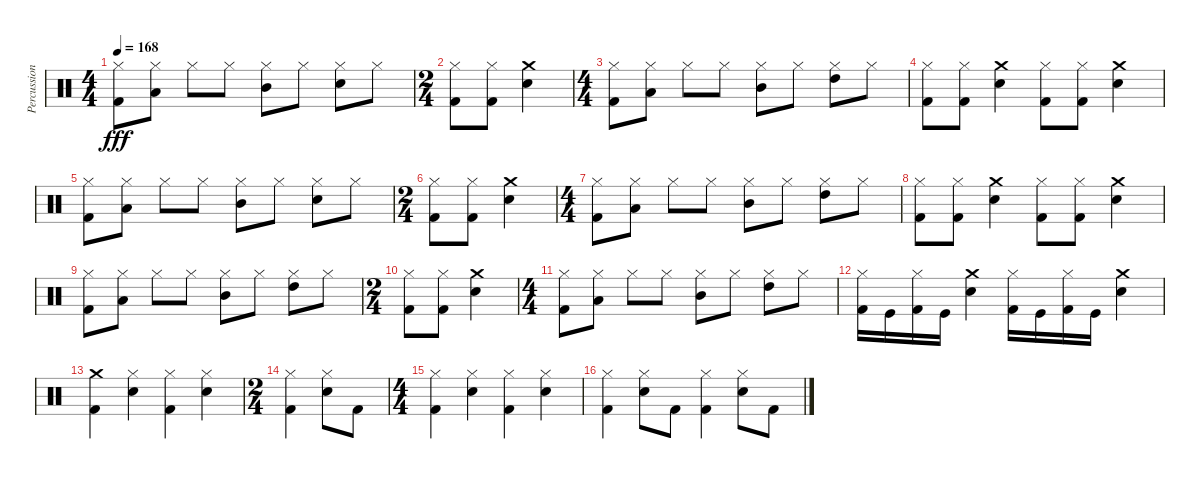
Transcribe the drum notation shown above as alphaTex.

\track ("Percussion" "Percussion") {instrument percussion}
\staff {score}
\articulation defaults
\ts (4 4)
\tempo 168
\clef neutral
\ks c
("Hi-Hat (closed)" "Kick (hit) 2").8{dy fff} ("Low Tom (hit)" "Hi-Hat (closed)").8 "Hi-Hat (closed)".8 "Hi-Hat (closed)".8 ("Mid Tom (hit)" "Hi-Hat (closed)").8 "Hi-Hat (closed)".8 ("Snare (hit) 2" "Hi-Hat (closed)").8 "Hi-Hat (closed)".8 |
\ts (2 4)
("Kick (hit) 2" "Hi-Hat (closed)").8 ("Kick (hit) 2" "Hi-Hat (closed)").8 ("Snare (hit) 2" "Crash medium (hit)").4 |
\ts (4 4)
("Hi-Hat (closed)" "Kick (hit) 2").8 ("Low Tom (hit)" "Hi-Hat (closed)").8 "Hi-Hat (closed)".8 "Hi-Hat (closed)".8 ("Mid Tom (hit)" "Hi-Hat (closed)").8 "Hi-Hat (closed)".8 ("Hi-Hat (closed)" "High Tom (hit)").8 "Hi-Hat (closed)".8 |
("Hi-Hat (closed)" "Kick (hit) 2").8 ("Hi-Hat (closed)" "Kick (hit) 2").8 ("Snare (hit) 2" "Crash medium (hit)").4 ("Kick (hit) 2" "Hi-Hat (closed)").8 ("Kick (hit) 2" "Hi-Hat (closed)").8 ("Crash medium (hit)" "Snare (hit) 2").4 |
("Hi-Hat (closed)" "Kick (hit) 2").8 ("Low Tom (hit)" "Hi-Hat (closed)").8 "Hi-Hat (closed)".8 "Hi-Hat (closed)".8 ("Mid Tom (hit)" "Hi-Hat (closed)").8 "Hi-Hat (closed)".8 ("Snare (hit) 2" "Hi-Hat (closed)").8 "Hi-Hat (closed)".8 |
\ts (2 4)
("Kick (hit) 2" "Hi-Hat (closed)").8 ("Kick (hit) 2" "Hi-Hat (closed)").8 ("Snare (hit) 2" "Crash medium (hit)").4 |
\ts (4 4)
("Hi-Hat (closed)" "Kick (hit) 2").8 ("Low Tom (hit)" "Hi-Hat (closed)").8 "Hi-Hat (closed)".8 "Hi-Hat (closed)".8 ("Mid Tom (hit)" "Hi-Hat (closed)").8 "Hi-Hat (closed)".8 ("Hi-Hat (closed)" "High Tom (hit)").8 "Hi-Hat (closed)".8 |
("Hi-Hat (closed)" "Kick (hit) 2").8 ("Hi-Hat (closed)" "Kick (hit) 2").8 ("Snare (hit) 2" "Crash medium (hit)").4 ("Kick (hit) 2" "Hi-Hat (closed)").8 ("Kick (hit) 2" "Hi-Hat (closed)").8 ("Crash medium (hit)" "Snare (hit) 2").4 |
("Hi-Hat (closed)" "Kick (hit) 2").8 ("Low Tom (hit)" "Hi-Hat (closed)").8 "Hi-Hat (closed)".8 "Hi-Hat (closed)".8 ("Mid Tom (hit)" "Hi-Hat (closed)").8 "Hi-Hat (closed)".8 ("Hi-Hat (closed)" "High Tom (hit)").8 "Hi-Hat (closed)".8 |
\ts (2 4)
("Hi-Hat (closed)" "Kick (hit) 2").8 ("Hi-Hat (closed)" "Kick (hit) 2").8 ("Crash medium (hit)" "Snare (hit) 2").4 |
\ts (4 4)
("Hi-Hat (closed)" "Kick (hit) 2").8 ("Low Tom (hit)" "Hi-Hat (closed)").8 "Hi-Hat (closed)".8 "Hi-Hat (closed)".8 ("Mid Tom (hit)" "Hi-Hat (closed)").8 "Hi-Hat (closed)".8 ("Hi-Hat (closed)" "High Tom (hit)").8 "Hi-Hat (closed)".8 |
("Kick (hit) 2" "Hi-Hat (closed)").16 "Kick (hit)".16 ("Kick (hit) 2" "Hi-Hat (closed)").16 "Kick (hit)".16 ("Snare (hit) 2" "Crash medium (hit)").4 ("Kick (hit) 2" "Hi-Hat (closed)").16 "Kick (hit)".16 ("Kick (hit) 2" "Hi-Hat (closed)").16 "Kick (hit)".16 ("Crash medium (hit)" "Snare (hit) 2").4 |
("Kick (hit) 2" "Crash medium (hit)").4 ("Hi-Hat (closed)" "Snare (hit) 2").4 ("Hi-Hat (closed)" "Kick (hit) 2").4 ("Snare (hit) 2" "Hi-Hat (closed)").4 |
\ts (2 4)
("Hi-Hat (closed)" "Kick (hit) 2").4 ("Snare (hit) 2" "Hi-Hat (closed)").8 "Kick (hit) 2".8 |
\ts (4 4)
("Kick (hit) 2" "Hi-Hat (closed)").4 ("Snare (hit) 2" "Hi-Hat (closed)").4 ("Kick (hit) 2" "Hi-Hat (closed)").4 ("Snare (hit) 2" "Hi-Hat (closed)").4 |
("Hi-Hat (closed)" "Kick (hit) 2").4 ("Snare (hit) 2" "Hi-Hat (closed)").8 "Kick (hit) 2".8 ("Kick (hit) 2" "Hi-Hat (closed)").4 ("Hi-Hat (closed)" "Snare (hit) 2").8 "Kick (hit) 2".8
